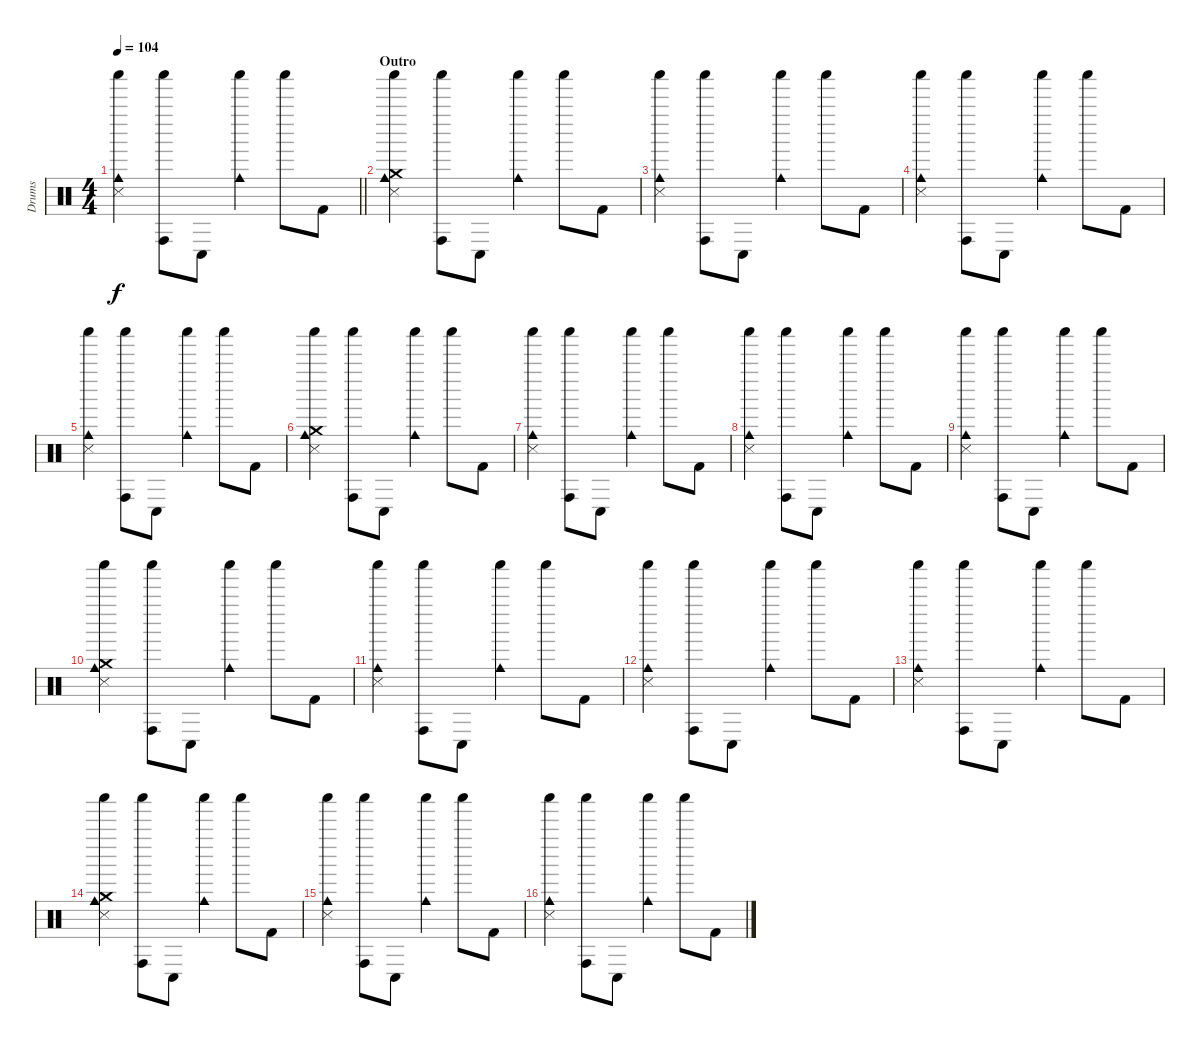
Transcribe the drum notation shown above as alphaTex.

\track ("Drums" "Drums") {instrument percussion}
\staff {score}
\articulation defaults
\ts (4 4)
\tempo 104
\clef neutral
\barLineRight lightlight
\ks c
("Snare (side stick) 3" "Shaker (hit)" "Cowbell medium (hit)").4{dy f} ("Shaker (hit)" "Conga high (hit)").8 "Conga low (hit)".8 ("Shaker (hit)" "Cowbell medium (hit)").4 "Shaker (hit)".8 "Kick (hit) 2".8 |
\section ("" "Outro")
("Snare (side stick) 3" "Shaker (hit)" "Cowbell medium (hit)" "Crash medium (hit)").4 ("Shaker (hit)" "Conga high (hit)").8 "Conga low (hit)".8 ("Shaker (hit)" "Cowbell medium (hit)").4 "Shaker (hit)".8 "Kick (hit) 2".8 |
("Snare (side stick) 3" "Shaker (hit)" "Cowbell medium (hit)").4 ("Shaker (hit)" "Conga high (hit)").8 "Conga low (hit)".8 ("Shaker (hit)" "Cowbell medium (hit)").4 "Shaker (hit)".8 "Kick (hit) 2".8 |
("Snare (side stick) 3" "Shaker (hit)" "Cowbell medium (hit)").4 ("Shaker (hit)" "Conga high (hit)").8 "Conga low (hit)".8 ("Shaker (hit)" "Cowbell medium (hit)").4 "Shaker (hit)".8 "Kick (hit) 2".8 |
("Snare (side stick) 3" "Shaker (hit)" "Cowbell medium (hit)").4 ("Shaker (hit)" "Conga high (hit)").8 "Conga low (hit)".8 ("Shaker (hit)" "Cowbell medium (hit)").4 "Shaker (hit)".8 "Kick (hit) 2".8 |
("Snare (side stick) 3" "Shaker (hit)" "Cowbell medium (hit)" "Crash medium (hit)").4 ("Shaker (hit)" "Conga high (hit)").8 "Conga low (hit)".8 ("Shaker (hit)" "Cowbell medium (hit)").4 "Shaker (hit)".8 "Kick (hit) 2".8 |
("Snare (side stick) 3" "Shaker (hit)" "Cowbell medium (hit)").4 ("Shaker (hit)" "Conga high (hit)").8 "Conga low (hit)".8 ("Shaker (hit)" "Cowbell medium (hit)").4 "Shaker (hit)".8 "Kick (hit) 2".8 |
("Snare (side stick) 3" "Shaker (hit)" "Cowbell medium (hit)").4 ("Shaker (hit)" "Conga high (hit)").8 "Conga low (hit)".8 ("Shaker (hit)" "Cowbell medium (hit)").4 "Shaker (hit)".8 "Kick (hit) 2".8 |
("Snare (side stick) 3" "Shaker (hit)" "Cowbell medium (hit)").4 ("Shaker (hit)" "Conga high (hit)").8 "Conga low (hit)".8 ("Shaker (hit)" "Cowbell medium (hit)").4 "Shaker (hit)".8 "Kick (hit) 2".8 |
("Snare (side stick) 3" "Shaker (hit)" "Cowbell medium (hit)" "Crash medium (hit)").4 ("Shaker (hit)" "Conga high (hit)").8 "Conga low (hit)".8 ("Shaker (hit)" "Cowbell medium (hit)").4 "Shaker (hit)".8 "Kick (hit) 2".8 |
("Snare (side stick) 3" "Shaker (hit)" "Cowbell medium (hit)").4 ("Shaker (hit)" "Conga high (hit)").8 "Conga low (hit)".8 ("Shaker (hit)" "Cowbell medium (hit)").4 "Shaker (hit)".8 "Kick (hit) 2".8 |
("Snare (side stick) 3" "Shaker (hit)" "Cowbell medium (hit)").4 ("Shaker (hit)" "Conga high (hit)").8 "Conga low (hit)".8 ("Shaker (hit)" "Cowbell medium (hit)").4 "Shaker (hit)".8 "Kick (hit) 2".8 |
("Snare (side stick) 3" "Shaker (hit)" "Cowbell medium (hit)").4 ("Shaker (hit)" "Conga high (hit)").8 "Conga low (hit)".8 ("Shaker (hit)" "Cowbell medium (hit)").4 "Shaker (hit)".8 "Kick (hit) 2".8 |
("Snare (side stick) 3" "Shaker (hit)" "Cowbell medium (hit)" "Crash medium (hit)").4 ("Shaker (hit)" "Conga high (hit)").8 "Conga low (hit)".8 ("Shaker (hit)" "Cowbell medium (hit)").4 "Shaker (hit)".8 "Kick (hit) 2".8 |
("Snare (side stick) 3" "Shaker (hit)" "Cowbell medium (hit)").4 ("Shaker (hit)" "Conga high (hit)").8 "Conga low (hit)".8 ("Shaker (hit)" "Cowbell medium (hit)").4 "Shaker (hit)".8 "Kick (hit) 2".8 |
("Snare (side stick) 3" "Shaker (hit)" "Cowbell medium (hit)").4 ("Shaker (hit)" "Conga high (hit)").8 "Conga low (hit)".8 ("Shaker (hit)" "Cowbell medium (hit)").4 "Shaker (hit)".8 "Kick (hit) 2".8
